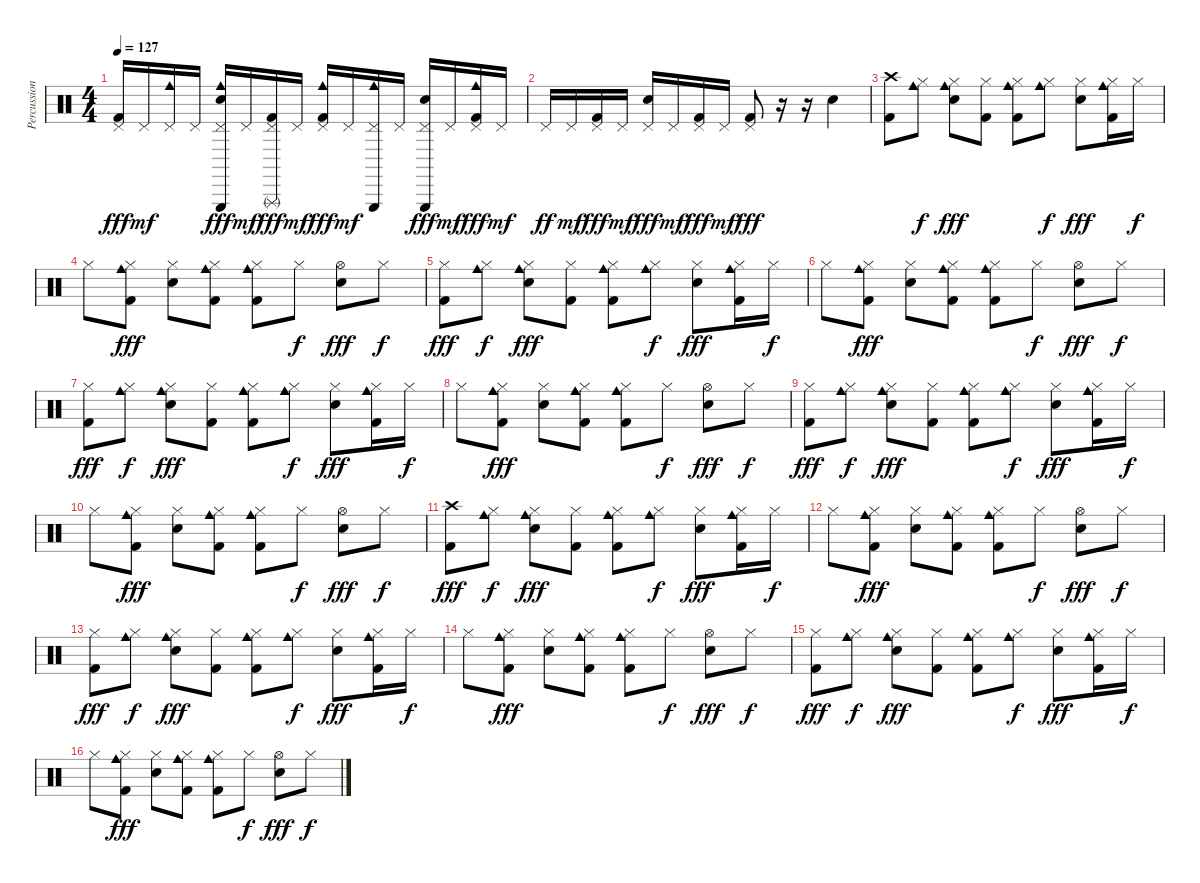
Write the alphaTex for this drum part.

\track ("Percussion" "Percussion") {instrument percussion}
\staff {score}
\articulation defaults
\ts (4 4)
\tempo 127
\clef neutral
\ks c
("Pedal Hi-Hat (hit)" "Kick (hit) 2").16{dy fff} "Pedal Hi-Hat (hit)".16{dy mf} ("Pedal Hi-Hat (hit)" "Cowbell medium (hit)").16 "Pedal Hi-Hat (hit)".16 ("Pedal Hi-Hat (hit)" "Triangle (hit)" "Electric Snare (hit)" "Cowbell medium (hit)").16{dy fff} "Pedal Hi-Hat (hit)".16{dy mf} ("Pedal Hi-Hat (hit)" "Triangle (rnute)" "Kick (hit) 2").16{dy fff} "Pedal Hi-Hat (hit)".16{dy mf} ("Pedal Hi-Hat (hit)" "Cowbell medium (hit)" "Kick (hit) 2").16{dy fff} "Pedal Hi-Hat (hit)".16{dy mf} ("Pedal Hi-Hat (hit)" "Triangle (hit)" "Cowbell medium (hit)").16 "Pedal Hi-Hat (hit)".16 ("Pedal Hi-Hat (hit)" "Triangle (hit)" "Electric Snare (hit)").16{dy fff} "Pedal Hi-Hat (hit)".16{dy mf} ("Pedal Hi-Hat (hit)" "Cowbell medium (hit)" "Kick (hit) 2").16{dy fff} "Pedal Hi-Hat (hit)".16{dy mf} |
"Pedal Hi-Hat (hit)".16{dy ff} "Pedal Hi-Hat (hit)".16{dy mf} ("Pedal Hi-Hat (hit)" "Kick (hit) 2").16{dy fff} "Pedal Hi-Hat (hit)".16{dy mf} ("Pedal Hi-Hat (hit)" "Electric Snare (hit)").16{dy fff} "Pedal Hi-Hat (hit)".16{dy mf} ("Pedal Hi-Hat (hit)" "Kick (hit) 2").16{dy fff} "Pedal Hi-Hat (hit)".16{dy mf} ("Pedal Hi-Hat (hit)" "Kick (hit) 2").8{dy fff} r.16 r.16 "Electric Snare (hit)".4 |
("Crash high (hit)" "Kick (hit) 2").8 ("Hi-Hat (closed)" "Cowbell medium (hit)").8{dy f} ("Hi-Hat (closed)" "Cowbell medium (hit)" "Electric Snare (hit)").8{dy fff} ("Hi-Hat (closed)" "Kick (hit) 2").8 ("Hi-Hat (closed)" "Cowbell medium (hit)" "Kick (hit) 2").8 ("Hi-Hat (closed)" "Cowbell medium (hit)").8{dy f} ("Hi-Hat (closed)" "Electric Snare (hit)").8{dy fff} ("Hi-Hat (closed)" "Cowbell medium (hit)" "Kick (hit) 2").16 "Hi-Hat (closed)".16{dy f} |
"Hi-Hat (closed)".8 ("Hi-Hat (closed)" "Cowbell medium (hit)" "Kick (hit) 2").8{dy fff} ("Hi-Hat (closed)" "Electric Snare (hit)").8 ("Hi-Hat (closed)" "Cowbell medium (hit)" "Kick (hit) 2").8 ("Hi-Hat (closed)" "Cowbell medium (hit)" "Kick (hit) 2").8 "Hi-Hat (closed)".8{dy f} ("Hi-Hat (open)" "Electric Snare (hit)").8{dy fff} "Hi-Hat (closed)".8{dy f} |
("Hi-Hat (closed)" "Kick (hit) 2").8{dy fff} ("Hi-Hat (closed)" "Cowbell medium (hit)").8{dy f} ("Hi-Hat (closed)" "Cowbell medium (hit)" "Electric Snare (hit)").8{dy fff} ("Hi-Hat (closed)" "Kick (hit) 2").8 ("Hi-Hat (closed)" "Cowbell medium (hit)" "Kick (hit) 2").8 ("Hi-Hat (closed)" "Cowbell medium (hit)").8{dy f} ("Hi-Hat (closed)" "Electric Snare (hit)").8{dy fff} ("Hi-Hat (closed)" "Cowbell medium (hit)" "Kick (hit) 2").16 "Hi-Hat (closed)".16{dy f} |
"Hi-Hat (closed)".8 ("Hi-Hat (closed)" "Cowbell medium (hit)" "Kick (hit) 2").8{dy fff} ("Hi-Hat (closed)" "Electric Snare (hit)").8 ("Hi-Hat (closed)" "Cowbell medium (hit)" "Kick (hit) 2").8 ("Hi-Hat (closed)" "Cowbell medium (hit)" "Kick (hit) 2").8 "Hi-Hat (closed)".8{dy f} ("Hi-Hat (open)" "Electric Snare (hit)").8{dy fff} "Hi-Hat (closed)".8{dy f} |
("Hi-Hat (closed)" "Kick (hit) 2").8{dy fff} ("Hi-Hat (closed)" "Cowbell medium (hit)").8{dy f} ("Hi-Hat (closed)" "Cowbell medium (hit)" "Electric Snare (hit)").8{dy fff} ("Hi-Hat (closed)" "Kick (hit) 2").8 ("Hi-Hat (closed)" "Cowbell medium (hit)" "Kick (hit) 2").8 ("Hi-Hat (closed)" "Cowbell medium (hit)").8{dy f} ("Hi-Hat (closed)" "Electric Snare (hit)").8{dy fff} ("Hi-Hat (closed)" "Cowbell medium (hit)" "Kick (hit) 2").16 "Hi-Hat (closed)".16{dy f} |
"Hi-Hat (closed)".8 ("Hi-Hat (closed)" "Cowbell medium (hit)" "Kick (hit) 2").8{dy fff} ("Hi-Hat (closed)" "Electric Snare (hit)").8 ("Hi-Hat (closed)" "Cowbell medium (hit)" "Kick (hit) 2").8 ("Hi-Hat (closed)" "Cowbell medium (hit)" "Kick (hit) 2").8 "Hi-Hat (closed)".8{dy f} ("Hi-Hat (open)" "Electric Snare (hit)").8{dy fff} "Hi-Hat (closed)".8{dy f} |
("Hi-Hat (closed)" "Kick (hit) 2").8{dy fff} ("Hi-Hat (closed)" "Cowbell medium (hit)").8{dy f} ("Hi-Hat (closed)" "Cowbell medium (hit)" "Electric Snare (hit)").8{dy fff} ("Hi-Hat (closed)" "Kick (hit) 2").8 ("Hi-Hat (closed)" "Cowbell medium (hit)" "Kick (hit) 2").8 ("Hi-Hat (closed)" "Cowbell medium (hit)").8{dy f} ("Hi-Hat (closed)" "Electric Snare (hit)").8{dy fff} ("Hi-Hat (closed)" "Cowbell medium (hit)" "Kick (hit) 2").16 "Hi-Hat (closed)".16{dy f} |
"Hi-Hat (closed)".8 ("Hi-Hat (closed)" "Cowbell medium (hit)" "Kick (hit) 2").8{dy fff} ("Hi-Hat (closed)" "Electric Snare (hit)").8 ("Hi-Hat (closed)" "Cowbell medium (hit)" "Kick (hit) 2").8 ("Hi-Hat (closed)" "Cowbell medium (hit)" "Kick (hit) 2").8 "Hi-Hat (closed)".8{dy f} ("Hi-Hat (open)" "Electric Snare (hit)").8{dy fff} "Hi-Hat (closed)".8{dy f} |
("Crash high (hit)" "Kick (hit) 2").8{dy fff} ("Hi-Hat (closed)" "Cowbell medium (hit)").8{dy f} ("Hi-Hat (closed)" "Cowbell medium (hit)" "Electric Snare (hit)").8{dy fff} ("Hi-Hat (closed)" "Kick (hit) 2").8 ("Hi-Hat (closed)" "Cowbell medium (hit)" "Kick (hit) 2").8 ("Hi-Hat (closed)" "Cowbell medium (hit)").8{dy f} ("Hi-Hat (closed)" "Electric Snare (hit)").8{dy fff} ("Hi-Hat (closed)" "Cowbell medium (hit)" "Kick (hit) 2").16 "Hi-Hat (closed)".16{dy f} |
"Hi-Hat (closed)".8 ("Hi-Hat (closed)" "Cowbell medium (hit)" "Kick (hit) 2").8{dy fff} ("Hi-Hat (closed)" "Electric Snare (hit)").8 ("Hi-Hat (closed)" "Cowbell medium (hit)" "Kick (hit) 2").8 ("Hi-Hat (closed)" "Cowbell medium (hit)" "Kick (hit) 2").8 "Hi-Hat (closed)".8{dy f} ("Hi-Hat (open)" "Electric Snare (hit)").8{dy fff} "Hi-Hat (closed)".8{dy f} |
("Hi-Hat (closed)" "Kick (hit) 2").8{dy fff} ("Hi-Hat (closed)" "Cowbell medium (hit)").8{dy f} ("Hi-Hat (closed)" "Cowbell medium (hit)" "Electric Snare (hit)").8{dy fff} ("Hi-Hat (closed)" "Kick (hit) 2").8 ("Hi-Hat (closed)" "Cowbell medium (hit)" "Kick (hit) 2").8 ("Hi-Hat (closed)" "Cowbell medium (hit)").8{dy f} ("Hi-Hat (closed)" "Electric Snare (hit)").8{dy fff} ("Hi-Hat (closed)" "Cowbell medium (hit)" "Kick (hit) 2").16 "Hi-Hat (closed)".16{dy f} |
"Hi-Hat (closed)".8 ("Hi-Hat (closed)" "Cowbell medium (hit)" "Kick (hit) 2").8{dy fff} ("Hi-Hat (closed)" "Electric Snare (hit)").8 ("Hi-Hat (closed)" "Cowbell medium (hit)" "Kick (hit) 2").8 ("Hi-Hat (closed)" "Cowbell medium (hit)" "Kick (hit) 2").8 "Hi-Hat (closed)".8{dy f} ("Hi-Hat (open)" "Electric Snare (hit)").8{dy fff} "Hi-Hat (closed)".8{dy f} |
("Hi-Hat (closed)" "Kick (hit) 2").8{dy fff} ("Hi-Hat (closed)" "Cowbell medium (hit)").8{dy f} ("Hi-Hat (closed)" "Cowbell medium (hit)" "Electric Snare (hit)").8{dy fff} ("Hi-Hat (closed)" "Kick (hit) 2").8 ("Hi-Hat (closed)" "Cowbell medium (hit)" "Kick (hit) 2").8 ("Hi-Hat (closed)" "Cowbell medium (hit)").8{dy f} ("Hi-Hat (closed)" "Electric Snare (hit)").8{dy fff} ("Hi-Hat (closed)" "Cowbell medium (hit)" "Kick (hit) 2").16 "Hi-Hat (closed)".16{dy f} |
"Hi-Hat (closed)".8 ("Hi-Hat (closed)" "Cowbell medium (hit)" "Kick (hit) 2").8{dy fff} ("Hi-Hat (closed)" "Electric Snare (hit)").8 ("Hi-Hat (closed)" "Cowbell medium (hit)" "Kick (hit) 2").8 ("Hi-Hat (closed)" "Cowbell medium (hit)" "Kick (hit) 2").8 "Hi-Hat (closed)".8{dy f} ("Hi-Hat (open)" "Electric Snare (hit)").8{dy fff} "Hi-Hat (closed)".8{dy f}
